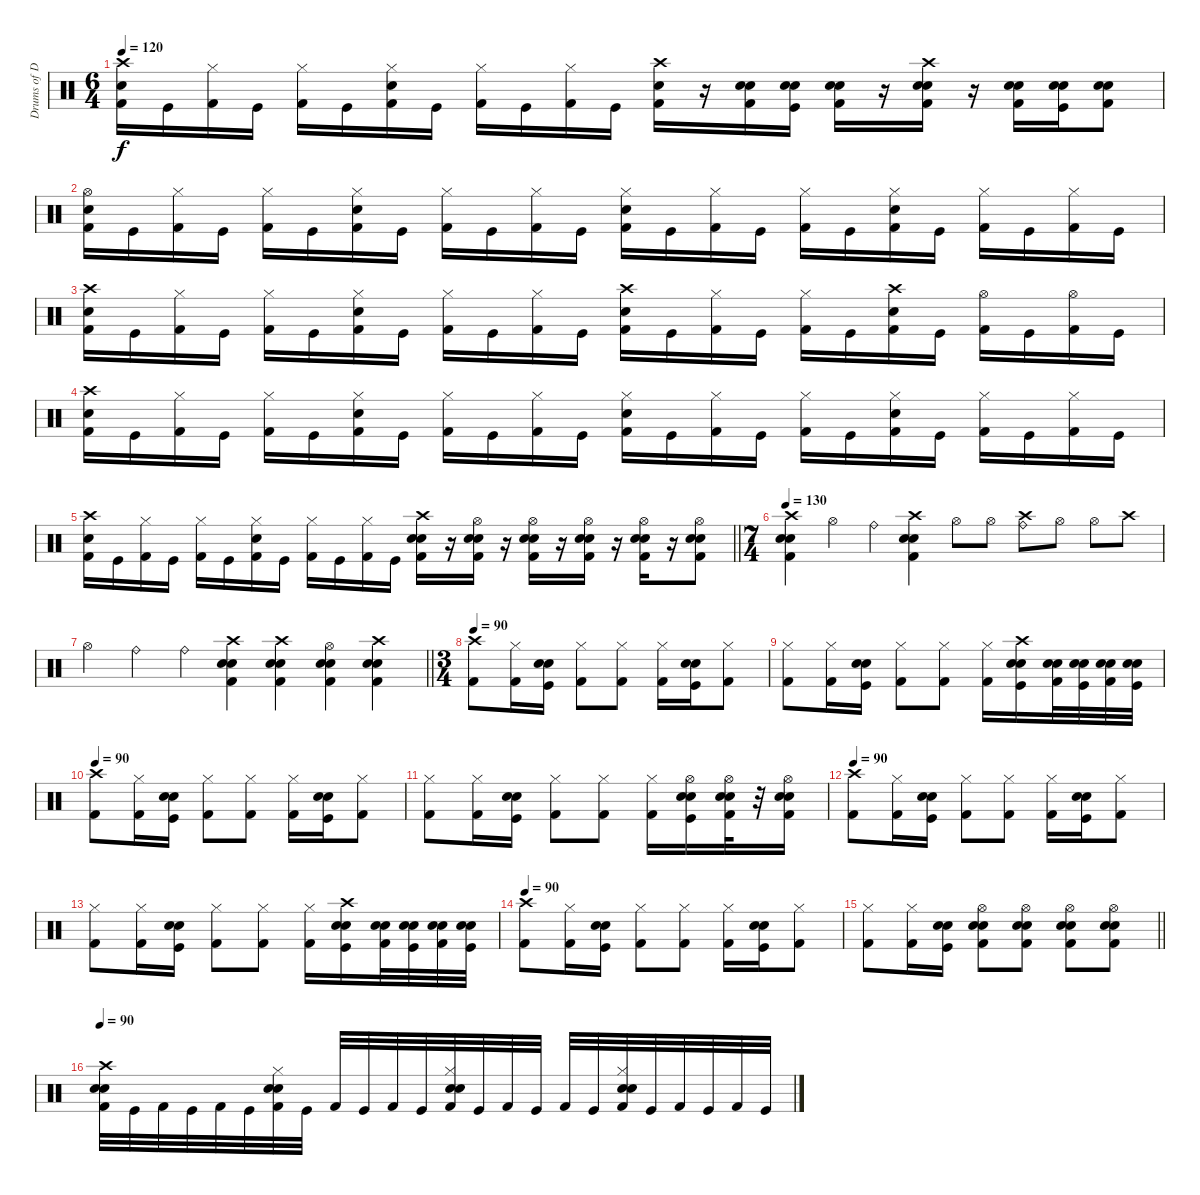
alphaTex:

\track ("Drums of Doom" "Drums of D") {instrument percussion}
\staff {score}
\articulation defaults
\ts (6 4)
\tempo 120
\clef neutral
\ks c
("Crash high (hit)" "Snare (hit) 2" "Kick (hit) 2").16{dy f} "Kick (hit)".16 ("Hi-Hat (closed)" "Kick (hit) 2").16 "Kick (hit)".16 ("Hi-Hat (closed)" "Kick (hit) 2").16 "Kick (hit)".16 ("Hi-Hat (closed)" "Snare (hit) 2" "Kick (hit) 2").16 "Kick (hit)".16 ("Hi-Hat (closed)" "Kick (hit) 2").16 "Kick (hit)".16 ("Hi-Hat (closed)" "Kick (hit) 2").16 "Kick (hit)".16 ("Crash high (hit)" "Snare (hit) 2" "Kick (hit) 2").16 r.16 ("Snare (hit) 2" "Electric Snare (hit)" "Kick (hit) 2").16 ("Snare (hit) 2" "Electric Snare (hit)" "Kick (hit)").16 ("Snare (hit) 2" "Electric Snare (hit)" "Kick (hit) 2").16 r.16 ("Crash high (hit)" "Electric Snare (hit)" "Snare (hit) 2" "Kick (hit) 2").16 r.16 ("Electric Snare (hit)" "Snare (hit) 2" "Kick (hit) 2").16 ("Electric Snare (hit)" "Snare (hit) 2" "Kick (hit)").16 ("Electric Snare (hit)" "Snare (hit) 2" "Kick (hit) 2").8 |
("Hi-Hat (open)" "Snare (hit) 2" "Kick (hit) 2").16 "Kick (hit)".16 ("Hi-Hat (closed)" "Kick (hit) 2").16 "Kick (hit)".16 ("Hi-Hat (closed)" "Kick (hit) 2").16 "Kick (hit)".16 ("Hi-Hat (closed)" "Snare (hit) 2" "Kick (hit) 2").16 "Kick (hit)".16 ("Hi-Hat (closed)" "Kick (hit) 2").16 "Kick (hit)".16 ("Hi-Hat (closed)" "Kick (hit) 2").16 "Kick (hit)".16 ("Hi-Hat (closed)" "Snare (hit) 2" "Kick (hit) 2").16 "Kick (hit)".16 ("Hi-Hat (closed)" "Kick (hit) 2").16 "Kick (hit)".16 ("Hi-Hat (closed)" "Kick (hit) 2").16 "Kick (hit)".16 ("Hi-Hat (closed)" "Snare (hit) 2" "Kick (hit) 2").16 "Kick (hit)".16 ("Hi-Hat (closed)" "Kick (hit) 2").16 "Kick (hit)".16 ("Hi-Hat (closed)" "Kick (hit) 2").16 "Kick (hit)".16 |
("Crash high (hit)" "Snare (hit) 2" "Kick (hit) 2").16 "Kick (hit)".16 ("Hi-Hat (closed)" "Kick (hit) 2").16 "Kick (hit)".16 ("Hi-Hat (closed)" "Kick (hit) 2").16 "Kick (hit)".16 ("Hi-Hat (closed)" "Snare (hit) 2" "Kick (hit) 2").16 "Kick (hit)".16 ("Hi-Hat (closed)" "Kick (hit) 2").16 "Kick (hit)".16 ("Hi-Hat (closed)" "Kick (hit) 2").16 "Kick (hit)".16 ("Crash high (hit)" "Snare (hit) 2" "Kick (hit) 2").16 "Kick (hit)".16 ("Hi-Hat (closed)" "Kick (hit) 2").16 "Kick (hit)".16 ("Hi-Hat (closed)" "Kick (hit) 2").16 "Kick (hit)".16 ("Crash high (hit)" "Snare (hit) 2" "Kick (hit) 2").16 "Kick (hit)".16 ("Hi-Hat (open)" "Kick (hit) 2").16 "Kick (hit)".16 ("Hi-Hat (open)" "Kick (hit) 2").16 "Kick (hit)".16 |
("Crash high (hit)" "Snare (hit) 2" "Kick (hit) 2").16 "Kick (hit)".16 ("Hi-Hat (closed)" "Kick (hit) 2").16 "Kick (hit)".16 ("Hi-Hat (closed)" "Kick (hit) 2").16 "Kick (hit)".16 ("Hi-Hat (closed)" "Snare (hit) 2" "Kick (hit) 2").16 "Kick (hit)".16 ("Hi-Hat (closed)" "Kick (hit) 2").16 "Kick (hit)".16 ("Hi-Hat (closed)" "Kick (hit) 2").16 "Kick (hit)".16 ("Hi-Hat (closed)" "Snare (hit) 2" "Kick (hit) 2").16 "Kick (hit)".16 ("Hi-Hat (closed)" "Kick (hit) 2").16 "Kick (hit)".16 ("Hi-Hat (closed)" "Kick (hit) 2").16 "Kick (hit)".16 ("Hi-Hat (closed)" "Snare (hit) 2" "Kick (hit) 2").16 "Kick (hit)".16 ("Hi-Hat (closed)" "Kick (hit) 2").16 "Kick (hit)".16 ("Hi-Hat (closed)" "Kick (hit) 2").16 "Kick (hit)".16 |
\barLineRight lightlight
("Crash high (hit)" "Snare (hit) 2" "Kick (hit) 2").16 "Kick (hit)".16 ("Hi-Hat (closed)" "Kick (hit) 2").16 "Kick (hit)".16 ("Hi-Hat (closed)" "Kick (hit) 2").16 "Kick (hit)".16 ("Hi-Hat (closed)" "Snare (hit) 2" "Kick (hit) 2").16 "Kick (hit)".16 ("Hi-Hat (closed)" "Kick (hit) 2").16 "Kick (hit)".16 ("Hi-Hat (closed)" "Kick (hit) 2").16 "Kick (hit)".16 ("Crash high (hit)" "Electric Snare (hit)" "Snare (hit) 2" "Kick (hit) 2").16 r.16 ("Hi-Hat (open)" "Electric Snare (hit)" "Snare (hit) 2" "Kick (hit) 2").16 r.16 ("Hi-Hat (open)" "Electric Snare (hit)" "Snare (hit) 2" "Kick (hit) 2").16 r.16 ("Hi-Hat (open)" "Electric Snare (hit)" "Snare (hit) 2" "Kick (hit) 2").16 r.16 ("Hi-Hat (open)" "Electric Snare (hit)" "Snare (hit) 2" "Kick (hit) 2").16 r.16 ("Hi-Hat (open)" "Electric Snare (hit)" "Snare (hit) 2" "Kick (hit) 2").8 |
\ts (7 4)
\tempo 130
("Crash high (hit)" "Electric Snare (hit)" "Snare (hit) 2" "Kick (hit) 2").4 "Hi-Hat (open)".4 "Ride (bell)".4 ("Crash high (hit)" "Electric Snare (hit)" "Snare (hit) 2" "Kick (hit) 2").4 "Hi-Hat (open)".8 "Hi-Hat (open)".8 ("Ride (bell)" "Crash high (hit)").8 "Hi-Hat (open)".8 "Hi-Hat (open)".8 "Crash high (hit)".8 |
\barLineRight lightlight "Hi-Hat (open)".4 "Ride (bell)".4 "Ride (bell)".4
("Crash high (hit)" "Electric Snare (hit)" "Snare (hit) 2" "Kick (hit) 2").4 ("Crash high (hit)" "Electric Snare (hit)" "Snare (hit) 2" "Kick (hit) 2").4 ("Hi-Hat (open)" "Electric Snare (hit)" "Snare (hit) 2" "Kick (hit) 2").4 ("Crash high (hit)" "Electric Snare (hit)" "Snare (hit) 2" "Kick (hit) 2").4 |
\ts (3 4)
\tempo 90
("Crash high (hit)" "Kick (hit) 2").8 ("Hi-Hat (closed)" "Kick (hit) 2").16 ("Electric Snare (hit)" "Snare (hit) 2" "Kick (hit)").16 ("Hi-Hat (closed)" "Kick (hit) 2").8 ("Hi-Hat (closed)" "Kick (hit) 2").8 ("Hi-Hat (closed)" "Kick (hit) 2").16 ("Electric Snare (hit)" "Snare (hit) 2" "Kick (hit)").16 ("Hi-Hat (closed)" "Kick (hit) 2").8 |
("Hi-Hat (closed)" "Kick (hit) 2").8 ("Hi-Hat (closed)" "Kick (hit) 2").16 ("Electric Snare (hit)" "Snare (hit) 2" "Kick (hit)").16 ("Hi-Hat (closed)" "Kick (hit) 2").8 ("Hi-Hat (closed)" "Kick (hit) 2").8 ("Hi-Hat (closed)" "Kick (hit) 2").16 ("Crash high (hit)" "Electric Snare (hit)" "Snare (hit) 2" "Kick (hit)").16 ("Electric Snare (hit)" "Snare (hit) 2" "Kick (hit) 2").32 ("Electric Snare (hit)" "Snare (hit) 2" "Kick (hit)").32 ("Electric Snare (hit)" "Snare (hit) 2" "Kick (hit) 2").32 ("Electric Snare (hit)" "Snare (hit) 2" "Kick (hit)").32 |
\tempo 90
("Crash high (hit)" "Kick (hit) 2").8 ("Hi-Hat (closed)" "Kick (hit) 2").16 ("Electric Snare (hit)" "Snare (hit) 2" "Kick (hit)").16 ("Hi-Hat (closed)" "Kick (hit) 2").8 ("Hi-Hat (closed)" "Kick (hit) 2").8 ("Hi-Hat (closed)" "Kick (hit) 2").16 ("Electric Snare (hit)" "Snare (hit) 2" "Kick (hit)").16 ("Hi-Hat (closed)" "Kick (hit) 2").8 |
("Hi-Hat (closed)" "Kick (hit) 2").8 ("Hi-Hat (closed)" "Kick (hit) 2").16 ("Electric Snare (hit)" "Snare (hit) 2" "Kick (hit)").16 ("Hi-Hat (closed)" "Kick (hit) 2").8 ("Hi-Hat (closed)" "Kick (hit) 2").8 ("Hi-Hat (closed)" "Kick (hit) 2").16 ("Hi-Hat (open)" "Electric Snare (hit)" "Snare (hit) 2" "Kick (hit)").16 ("Hi-Hat (open)" "Electric Snare (hit)" "Snare (hit) 2" "Kick (hit) 2").32 r.32 ("Hi-Hat (open)" "Electric Snare (hit)" "Snare (hit) 2" "Kick (hit) 2").16 |
\tempo 90
("Crash high (hit)" "Kick (hit) 2").8 ("Hi-Hat (closed)" "Kick (hit) 2").16 ("Electric Snare (hit)" "Snare (hit) 2" "Kick (hit)").16 ("Hi-Hat (closed)" "Kick (hit) 2").8 ("Hi-Hat (closed)" "Kick (hit) 2").8 ("Hi-Hat (closed)" "Kick (hit) 2").16 ("Electric Snare (hit)" "Snare (hit) 2" "Kick (hit)").16 ("Hi-Hat (closed)" "Kick (hit) 2").8 |
("Hi-Hat (closed)" "Kick (hit) 2").8 ("Hi-Hat (closed)" "Kick (hit) 2").16 ("Electric Snare (hit)" "Snare (hit) 2" "Kick (hit)").16 ("Hi-Hat (closed)" "Kick (hit) 2").8 ("Hi-Hat (closed)" "Kick (hit) 2").8 ("Hi-Hat (closed)" "Kick (hit) 2").16 ("Crash high (hit)" "Electric Snare (hit)" "Snare (hit) 2" "Kick (hit)").16 ("Electric Snare (hit)" "Snare (hit) 2" "Kick (hit) 2").32 ("Electric Snare (hit)" "Snare (hit) 2" "Kick (hit)").32 ("Electric Snare (hit)" "Snare (hit) 2" "Kick (hit) 2").32 ("Electric Snare (hit)" "Snare (hit) 2" "Kick (hit)").32 |
\tempo 90
("Crash high (hit)" "Kick (hit) 2").8 ("Hi-Hat (closed)" "Kick (hit) 2").16 ("Electric Snare (hit)" "Snare (hit) 2" "Kick (hit)").16 ("Hi-Hat (closed)" "Kick (hit) 2").8 ("Hi-Hat (closed)" "Kick (hit) 2").8 ("Hi-Hat (closed)" "Kick (hit) 2").16 ("Electric Snare (hit)" "Snare (hit) 2" "Kick (hit)").16 ("Hi-Hat (closed)" "Kick (hit) 2").8 |
\barLineRight lightlight
("Hi-Hat (closed)" "Kick (hit) 2").8 ("Hi-Hat (closed)" "Kick (hit) 2").16 ("Electric Snare (hit)" "Snare (hit) 2" "Kick (hit)").16 ("Hi-Hat (open)" "Electric Snare (hit)" "Snare (hit) 2" "Kick (hit) 2").8 ("Hi-Hat (open)" "Electric Snare (hit)" "Snare (hit) 2" "Kick (hit) 2").8 ("Hi-Hat (open)" "Electric Snare (hit)" "Snare (hit) 2" "Kick (hit) 2").8 ("Hi-Hat (open)" "Electric Snare (hit)" "Snare (hit) 2" "Kick (hit) 2").8 |
\tempo 90
("Crash high (hit)" "Electric Snare (hit)" "Snare (hit) 2" "Kick (hit) 2").32 "Kick (hit)".32 "Kick (hit) 2".32 "Kick (hit)".32 "Kick (hit) 2".32 "Kick (hit)".32 ("Hi-Hat (closed)" "Electric Snare (hit)" "Snare (hit) 2" "Kick (hit) 2").32 "Kick (hit)".32 "Kick (hit) 2".32 "Kick (hit)".32 "Kick (hit) 2".32 "Kick (hit)".32 ("Hi-Hat (closed)" "Electric Snare (hit)" "Snare (hit) 2" "Kick (hit) 2").32 "Kick (hit)".32 "Kick (hit) 2".32 "Kick (hit)".32 "Kick (hit) 2".32 "Kick (hit)".32 ("Hi-Hat (closed)" "Electric Snare (hit)" "Snare (hit) 2" "Kick (hit) 2").32 "Kick (hit)".32 "Kick (hit) 2".32 "Kick (hit)".32 "Kick (hit) 2".32 "Kick (hit)".32
